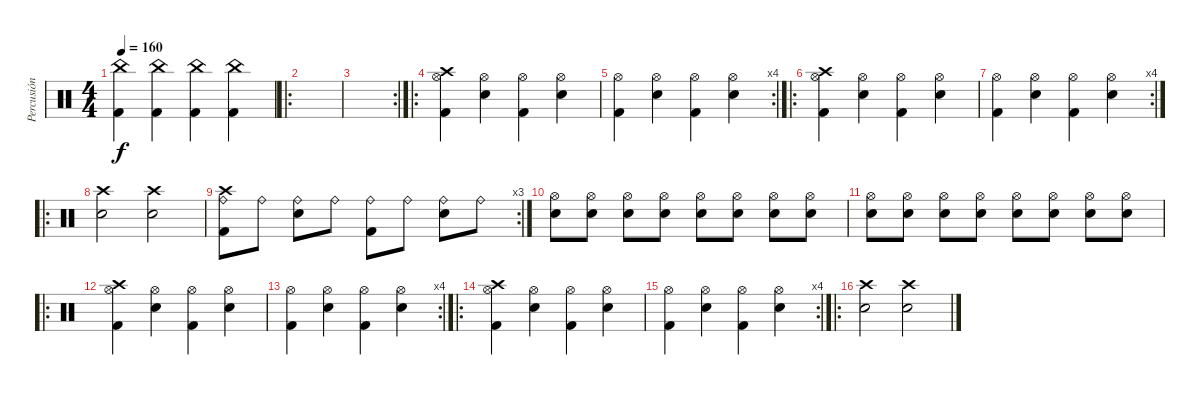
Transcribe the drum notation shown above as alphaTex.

\track ("Percusión" "Percusión") {instrument percussion}
\staff {score}
\articulation defaults
\ts (4 4)
\tempo 160
\clef neutral
\ks c
("China (hit)" "Kick (hit) 2").4{dy f} ("China (hit)" "Kick (hit) 2").4 ("China (hit)" "Kick (hit) 2").4 ("China (hit)" "Kick (hit) 2").4 |
\ro
|
\rc 2
|
\ro
("Crash high (hit)" "Hi-Hat (open)" "Kick (hit) 2").4 ("Hi-Hat (open)" "Snare (hit) 2").4 ("Hi-Hat (open)" "Kick (hit) 2").4 ("Hi-Hat (open)" "Snare (hit) 2").4 |
\rc 4
("Hi-Hat (open)" "Kick (hit) 2").4 ("Hi-Hat (open)" "Snare (hit) 2").4 ("Hi-Hat (open)" "Kick (hit) 2").4 ("Hi-Hat (open)" "Snare (hit) 2").4 |
\ro
("Crash high (hit)" "Hi-Hat (open)" "Kick (hit) 2").4 ("Hi-Hat (open)" "Snare (hit) 2").4 ("Hi-Hat (open)" "Kick (hit) 2").4 ("Hi-Hat (open)" "Snare (hit) 2").4 |
\rc 4
("Hi-Hat (open)" "Kick (hit) 2").4 ("Hi-Hat (open)" "Snare (hit) 2").4 ("Hi-Hat (open)" "Kick (hit) 2").4 ("Hi-Hat (open)" "Snare (hit) 2").4 |
\ro
("Crash high (hit)" "Snare (hit) 2").2 ("Crash high (hit)" "Snare (hit) 2").2 |
\rc 3
("Crash high (hit)" "Ride (bell)" "Kick (hit) 2").8 "Ride (bell)".8 ("Ride (bell)" "Snare (hit) 2").8 "Ride (bell)".8 ("Ride (bell)" "Kick (hit) 2").8 "Ride (bell)".8 ("Ride (bell)" "Snare (hit) 2").8 "Ride (bell)".8 |
("Hi-Hat (open)" "Snare (hit) 2").8 ("Hi-Hat (open)" "Snare (hit) 2").8 ("Hi-Hat (open)" "Snare (hit) 2").8 ("Hi-Hat (open)" "Snare (hit) 2").8 ("Hi-Hat (open)" "Snare (hit) 2").8 ("Hi-Hat (open)" "Snare (hit) 2").8 ("Hi-Hat (open)" "Snare (hit) 2").8 ("Hi-Hat (open)" "Snare (hit) 2").8 |
("Hi-Hat (open)" "Snare (hit) 2").8 ("Hi-Hat (open)" "Snare (hit) 2").8 ("Hi-Hat (open)" "Snare (hit) 2").8 ("Hi-Hat (open)" "Snare (hit) 2").8 ("Hi-Hat (open)" "Snare (hit) 2").8 ("Hi-Hat (open)" "Snare (hit) 2").8 ("Hi-Hat (open)" "Snare (hit) 2").8 ("Hi-Hat (open)" "Snare (hit) 2").8 |
\ro
("Crash high (hit)" "Hi-Hat (open)" "Kick (hit) 2").4 ("Hi-Hat (open)" "Snare (hit) 2").4 ("Hi-Hat (open)" "Kick (hit) 2").4 ("Hi-Hat (open)" "Snare (hit) 2").4 |
\rc 4
("Hi-Hat (open)" "Kick (hit) 2").4 ("Hi-Hat (open)" "Snare (hit) 2").4 ("Hi-Hat (open)" "Kick (hit) 2").4 ("Hi-Hat (open)" "Snare (hit) 2").4 |
\ro
("Crash high (hit)" "Hi-Hat (open)" "Kick (hit) 2").4 ("Hi-Hat (open)" "Snare (hit) 2").4 ("Hi-Hat (open)" "Kick (hit) 2").4 ("Hi-Hat (open)" "Snare (hit) 2").4 |
\rc 4
("Hi-Hat (open)" "Kick (hit) 2").4 ("Hi-Hat (open)" "Snare (hit) 2").4 ("Hi-Hat (open)" "Kick (hit) 2").4 ("Hi-Hat (open)" "Snare (hit) 2").4 |
\ro
("Crash high (hit)" "Snare (hit) 2").2 ("Crash high (hit)" "Snare (hit) 2").2
